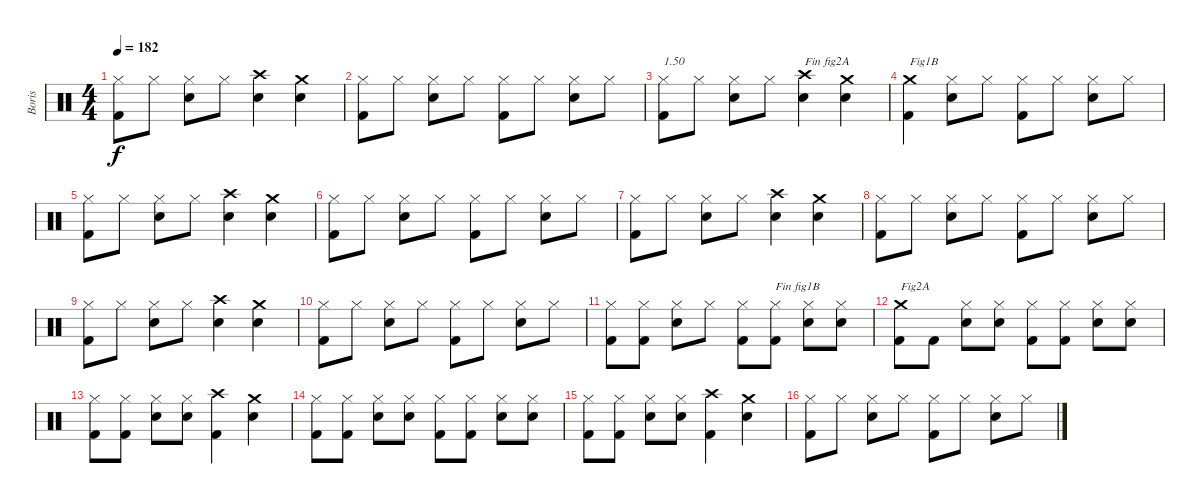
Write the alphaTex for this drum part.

\track ("Boris" "Boris") {instrument percussion}
\staff {score}
\articulation defaults
\ts (4 4)
\tempo 182
\clef neutral
\ks c
("Kick (hit) 2" "Hi-Hat (closed)").8{dy f} "Hi-Hat (closed)".8 ("Electric Snare (hit)" "Hi-Hat (closed)").8 "Hi-Hat (closed)".8 ("Electric Snare (hit)" "Crash high (hit)").4 ("Electric Snare (hit)" "Crash medium (hit)").4 |
("Kick (hit) 2" "Hi-Hat (closed)").8 "Hi-Hat (closed)".8 ("Electric Snare (hit)" "Hi-Hat (closed)").8 "Hi-Hat (closed)".8 ("Kick (hit) 2" "Hi-Hat (closed)").8 "Hi-Hat (closed)".8 ("Electric Snare (hit)" "Hi-Hat (closed)").8 "Hi-Hat (closed)".8 |
("Kick (hit) 2" "Hi-Hat (closed)").8{txt "1.50"} "Hi-Hat (closed)".8 ("Electric Snare (hit)" "Hi-Hat (closed)").8 "Hi-Hat (closed)".8 ("Electric Snare (hit)" "Crash high (hit)").4{txt "Fin fig2A"} ("Electric Snare (hit)" "Crash medium (hit)").4 |
("Kick (hit) 2" "Crash medium (hit)").4{txt "Fig1B"} ("Electric Snare (hit)" "Hi-Hat (closed)").8 "Hi-Hat (closed)".8 ("Kick (hit) 2" "Hi-Hat (closed)").8 "Hi-Hat (closed)".8 ("Electric Snare (hit)" "Hi-Hat (closed)").8 "Hi-Hat (closed)".8 |
("Kick (hit) 2" "Hi-Hat (closed)").8 "Hi-Hat (closed)".8 ("Electric Snare (hit)" "Hi-Hat (closed)").8 "Hi-Hat (closed)".8 ("Electric Snare (hit)" "Crash high (hit)").4 ("Electric Snare (hit)" "Crash medium (hit)").4 |
("Kick (hit) 2" "Hi-Hat (closed)").8 "Hi-Hat (closed)".8 ("Electric Snare (hit)" "Hi-Hat (closed)").8 "Hi-Hat (closed)".8 ("Kick (hit) 2" "Hi-Hat (closed)").8 "Hi-Hat (closed)".8 ("Electric Snare (hit)" "Hi-Hat (closed)").8 "Hi-Hat (closed)".8 |
("Kick (hit) 2" "Hi-Hat (closed)").8 "Hi-Hat (closed)".8 ("Electric Snare (hit)" "Hi-Hat (closed)").8 "Hi-Hat (closed)".8 ("Electric Snare (hit)" "Crash high (hit)").4 ("Electric Snare (hit)" "Crash medium (hit)").4 |
("Kick (hit) 2" "Hi-Hat (closed)").8 "Hi-Hat (closed)".8 ("Electric Snare (hit)" "Hi-Hat (closed)").8 "Hi-Hat (closed)".8 ("Kick (hit) 2" "Hi-Hat (closed)").8 "Hi-Hat (closed)".8 ("Electric Snare (hit)" "Hi-Hat (closed)").8 "Hi-Hat (closed)".8 |
("Kick (hit) 2" "Hi-Hat (closed)").8 "Hi-Hat (closed)".8 ("Electric Snare (hit)" "Hi-Hat (closed)").8 "Hi-Hat (closed)".8 ("Electric Snare (hit)" "Crash high (hit)").4 ("Electric Snare (hit)" "Crash medium (hit)").4 |
("Kick (hit) 2" "Hi-Hat (closed)").8 "Hi-Hat (closed)".8 ("Electric Snare (hit)" "Hi-Hat (closed)").8 "Hi-Hat (closed)".8 ("Kick (hit) 2" "Hi-Hat (closed)").8 "Hi-Hat (closed)".8 ("Electric Snare (hit)" "Hi-Hat (closed)").8 "Hi-Hat (closed)".8 |
("Kick (hit) 2" "Hi-Hat (closed)").8 ("Kick (hit) 2" "Hi-Hat (closed)").8 ("Electric Snare (hit)" "Hi-Hat (closed)").8 "Hi-Hat (closed)".8 ("Kick (hit) 2" "Hi-Hat (closed)").8 ("Kick (hit) 2" "Hi-Hat (closed)").8{txt "Fin fig1B"} ("Electric Snare (hit)" "Hi-Hat (closed)").8 ("Electric Snare (hit)" "Hi-Hat (closed)").8 |
("Kick (hit) 2" "Crash medium (hit)").8{txt "Fig2A"} "Kick (hit) 2".8 ("Electric Snare (hit)" "Hi-Hat (closed)").8 ("Electric Snare (hit)" "Hi-Hat (closed)").8 ("Kick (hit) 2" "Hi-Hat (closed)").8 ("Kick (hit) 2" "Hi-Hat (closed)").8 ("Electric Snare (hit)" "Hi-Hat (closed)").8 ("Electric Snare (hit)" "Hi-Hat (closed)").8 |
("Kick (hit) 2" "Hi-Hat (closed)").8 ("Kick (hit) 2" "Hi-Hat (closed)").8 ("Electric Snare (hit)" "Hi-Hat (closed)").8 ("Electric Snare (hit)" "Hi-Hat (closed)").8 ("Kick (hit) 2" "Crash high (hit)").4 ("Electric Snare (hit)" "Crash medium (hit)").4 |
("Kick (hit) 2" "Hi-Hat (closed)").8 ("Kick (hit) 2" "Hi-Hat (closed)").8 ("Electric Snare (hit)" "Hi-Hat (closed)").8 ("Electric Snare (hit)" "Hi-Hat (closed)").8 ("Kick (hit) 2" "Hi-Hat (closed)").8 ("Kick (hit) 2" "Hi-Hat (closed)").8 ("Electric Snare (hit)" "Hi-Hat (closed)").8 ("Electric Snare (hit)" "Hi-Hat (closed)").8 |
("Kick (hit) 2" "Hi-Hat (closed)").8 ("Kick (hit) 2" "Hi-Hat (closed)").8 ("Electric Snare (hit)" "Hi-Hat (closed)").8 ("Electric Snare (hit)" "Hi-Hat (closed)").8 ("Kick (hit) 2" "Crash high (hit)").4 ("Electric Snare (hit)" "Crash medium (hit)").4 |
("Kick (hit) 2" "Hi-Hat (closed)").8 "Hi-Hat (closed)".8 ("Electric Snare (hit)" "Hi-Hat (closed)").8 "Hi-Hat (closed)".8 ("Kick (hit) 2" "Hi-Hat (closed)").8 "Hi-Hat (closed)".8 ("Electric Snare (hit)" "Hi-Hat (closed)").8 "Hi-Hat (closed)".8
